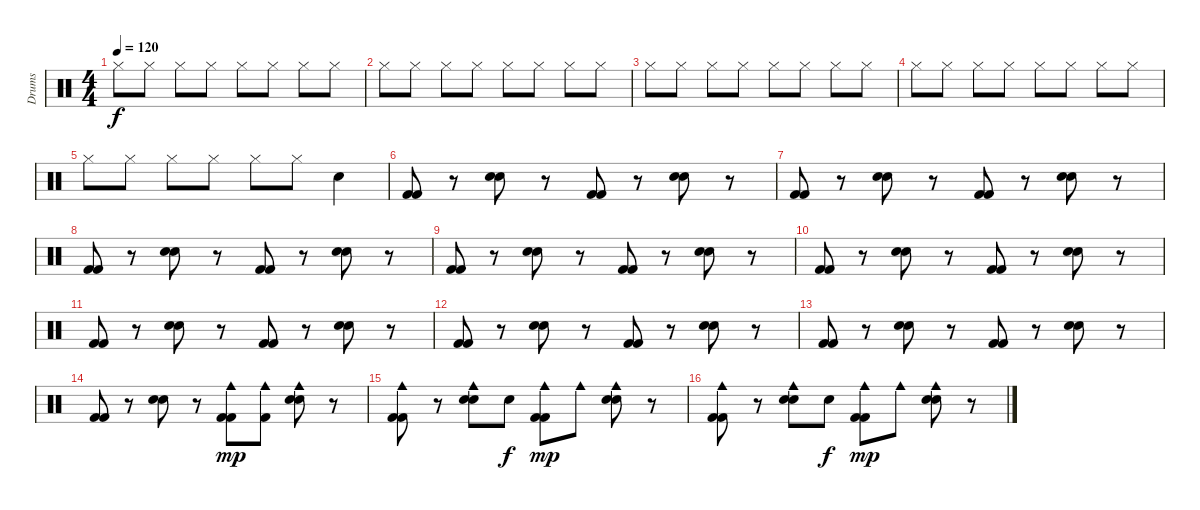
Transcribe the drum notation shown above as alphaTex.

\track ("Drums" "Drums") {instrument percussion}
\staff {score}
\articulation defaults
\ts (4 4)
\tempo 120
\clef neutral
\ks c "Hi-Hat (closed)".8{dy f} "Hi-Hat (closed)".8 "Hi-Hat (closed)".8 "Hi-Hat (closed)".8 "Hi-Hat (closed)".8 "Hi-Hat (closed)".8 "Hi-Hat (closed)".8 "Hi-Hat (closed)".8
|
"Hi-Hat (closed)".8 "Hi-Hat (closed)".8 "Hi-Hat (closed)".8 "Hi-Hat (closed)".8 "Hi-Hat (closed)".8 "Hi-Hat (closed)".8 "Hi-Hat (closed)".8 "Hi-Hat (closed)".8 |
"Hi-Hat (closed)".8 "Hi-Hat (closed)".8 "Hi-Hat (closed)".8 "Hi-Hat (closed)".8 "Hi-Hat (closed)".8 "Hi-Hat (closed)".8 "Hi-Hat (closed)".8 "Hi-Hat (closed)".8 |
"Hi-Hat (closed)".8 "Hi-Hat (closed)".8 "Hi-Hat (closed)".8 "Hi-Hat (closed)".8 "Hi-Hat (closed)".8 "Hi-Hat (closed)".8 "Hi-Hat (closed)".8 "Hi-Hat (closed)".8 |
"Hi-Hat (closed)".8 "Hi-Hat (closed)".8 "Hi-Hat (closed)".8 "Hi-Hat (closed)".8 "Hi-Hat (closed)".8 "Hi-Hat (closed)".8 "Snare (hit) 2".4 |
("Kick (hit) 2" "Kick (hit) 2").8 r.8 ("Snare (hit) 2" "Snare (hit) 2").8 r.8 ("Kick (hit) 2" "Kick (hit) 2").8 r.8 ("Snare (hit) 2" "Snare (hit) 2").8 r.8 |
("Kick (hit) 2" "Kick (hit) 2").8 r.8 ("Snare (hit) 2" "Snare (hit) 2").8 r.8 ("Kick (hit) 2" "Kick (hit) 2").8 r.8 ("Snare (hit) 2" "Snare (hit) 2").8 r.8 |
("Kick (hit) 2" "Kick (hit) 2").8 r.8 ("Snare (hit) 2" "Snare (hit) 2").8 r.8 ("Kick (hit) 2" "Kick (hit) 2").8 r.8 ("Snare (hit) 2" "Snare (hit) 2").8 r.8 |
("Kick (hit) 2" "Kick (hit) 2").8 r.8 ("Snare (hit) 2" "Snare (hit) 2").8 r.8 ("Kick (hit) 2" "Kick (hit) 2").8 r.8 ("Snare (hit) 2" "Snare (hit) 2").8 r.8 |
("Kick (hit) 2" "Kick (hit) 2").8 r.8 ("Snare (hit) 2" "Snare (hit) 2").8 r.8 ("Kick (hit) 2" "Kick (hit) 2").8 r.8 ("Snare (hit) 2" "Snare (hit) 2").8 r.8 |
("Kick (hit) 2" "Kick (hit) 2").8 r.8 ("Snare (hit) 2" "Snare (hit) 2").8 r.8 ("Kick (hit) 2" "Kick (hit) 2").8 r.8 ("Snare (hit) 2" "Snare (hit) 2").8 r.8 |
("Kick (hit) 2" "Kick (hit) 2").8 r.8 ("Snare (hit) 2" "Snare (hit) 2").8 r.8 ("Kick (hit) 2" "Kick (hit) 2").8 r.8 ("Snare (hit) 2" "Snare (hit) 2").8 r.8 |
("Kick (hit) 2" "Kick (hit) 2").8 r.8 ("Snare (hit) 2" "Snare (hit) 2").8 r.8 ("Kick (hit) 2" "Kick (hit) 2").8 r.8 ("Snare (hit) 2" "Snare (hit) 2").8 r.8 |
("Kick (hit) 2" "Kick (hit) 2").8 r.8 ("Snare (hit) 2" "Snare (hit) 2").8 r.8 ("Kick (hit) 2" "Kick (hit) 2" "Cowbell medium (hit)").8{dy mp} ("Kick (hit) 2" "Cowbell medium (hit)").8 ("Snare (hit) 2" "Snare (hit) 2" "Cowbell medium (hit)").8 r.8 |
("Kick (hit) 2" "Kick (hit) 2" "Cowbell medium (hit)").8 r.8 ("Snare (hit) 2" "Snare (hit) 2" "Cowbell medium (hit)").8 "Snare (hit) 2".8{dy f} ("Kick (hit) 2" "Kick (hit) 2" "Cowbell medium (hit)").8{dy mp} "Cowbell medium (hit)".8 ("Snare (hit) 2" "Snare (hit) 2" "Cowbell medium (hit)").8 r.8 |
("Kick (hit) 2" "Kick (hit) 2" "Cowbell medium (hit)").8 r.8 ("Snare (hit) 2" "Snare (hit) 2" "Cowbell medium (hit)").8 "Snare (hit) 2".8{dy f} ("Kick (hit) 2" "Kick (hit) 2" "Cowbell medium (hit)").8{dy mp} "Cowbell medium (hit)".8 ("Snare (hit) 2" "Snare (hit) 2" "Cowbell medium (hit)").8 r.8
